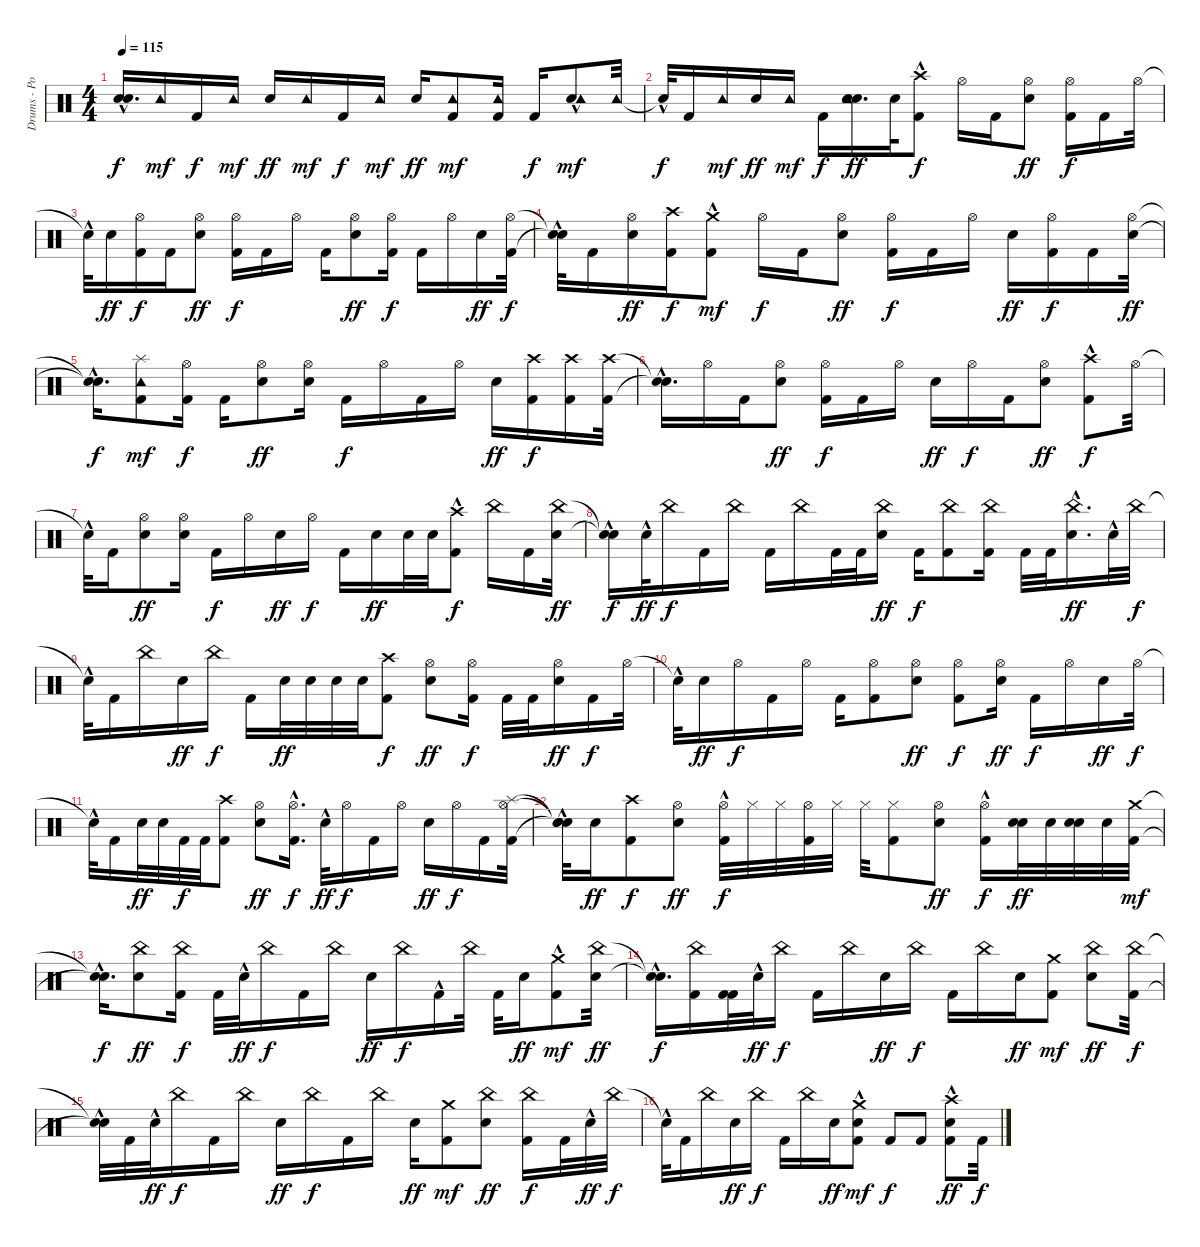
\track ("Drums - Portnoy" "Drums - Po") {instrument percussion}
\staff {score}
\articulation defaults
\ts (4 4)
\tempo 115
\clef neutral
\ks c
("Snare (hit)"{t} "Snare (hit)"{hac t}).16{d dy f} "Tambourine (hit)".16{dy mf} "Kick (hit) 2".16{dy f} "Tambourine (hit)".16{dy mf} "Electric Snare (hit)".16{dy ff} "Tambourine (hit)".16{dy mf} "Kick (hit) 2".16{dy f} "Tambourine (hit)".16{dy mf} "Electric Snare (hit)".16{dy ff} ("Kick (hit) 2" "Tambourine (hit)").8{dy mf} ("Kick (hit) 2" "Tambourine (hit)").16 "Kick (hit) 2".16{dy f} ("Electric Snare (hit)"{hac} "Tambourine (hit)").8{dy mf} "Tambourine (hit)".32 |
"Snare (hit)"{hac t}.32{dy f} "Kick (hit) 2".16 "Tambourine (hit)".16{dy mf} "Electric Snare (hit)".16{dy ff} "Tambourine (hit)".16{dy mf} "Kick (hit) 2".16{dy f} ("Electric Snare (hit)" "Tambourine (hit)" "Electric Snare (hit)").16{d dy ff} "Electric Snare (hit)".32 ("Crash high (hit)" "Kick (hit) 2"{hac}).8{dy f} "Hi-Hat (open)".16 "Kick (hit) 2".16 ("Hi-Hat (open)" "Electric Snare (hit)").8{dy ff} ("Kick (hit) 2" "Hi-Hat (open)").16{dy f} "Kick (hit) 2".16 "Hi-Hat (open)".32 |
"Snare (hit)"{hac t}.32 "Electric Snare (hit)".16{dy ff} ("Kick (hit) 2" "Hi-Hat (open)").16{dy f} "Kick (hit) 2".16 ("Hi-Hat (open)" "Electric Snare (hit)").8{dy ff} ("Kick (hit) 2" "Hi-Hat (open)").16{dy f} "Kick (hit) 2".16 "Hi-Hat (open)".16 "Kick (hit) 2".16 ("Hi-Hat (open)" "Electric Snare (hit)").8{dy ff} ("Kick (hit) 2" "Hi-Hat (open)").16{dy f} "Kick (hit) 2".16 "Hi-Hat (open)".16 "Electric Snare (hit)".16{dy ff} ("Kick (hit) 2" "Hi-Hat (open)").32{dy f} |
("Snare (hit)"{t} "Snare (hit)"{hac t}).32 "Kick (hit) 2".16 ("Hi-Hat (open)" "Electric Snare (hit)").16{dy ff} ("Kick (hit) 2" "Crash high (hit)").16{dy f} ("Kick (hit) 2"{hac} "Crash medium (hit)").8{dy mf} "Hi-Hat (open)".16{dy f} "Kick (hit) 2".16 ("Hi-Hat (open)" "Electric Snare (hit)").8{dy ff} ("Kick (hit) 2" "Hi-Hat (open)").16{dy f} "Kick (hit) 2".16 "Hi-Hat (open)".16 "Electric Snare (hit)".16{dy ff} ("Kick (hit) 2" "Hi-Hat (open)").16{dy f} "Kick (hit) 2".16 ("Hi-Hat (open)" "Electric Snare (hit)").32{dy ff} |
("Snare (hit)"{hac t} "Snare (hit)"{hac t}).16{d dy f} ("Kick (hit) 2" "Splash (hit)" "Tambourine (hit)").8{dy mf} ("Kick (hit) 2" "Hi-Hat (open)").16{dy f} "Kick (hit) 2".16 ("Hi-Hat (open)" "Electric Snare (hit)").8{dy ff} ("Hi-Hat (open)" "Electric Snare (hit)").16 "Kick (hit) 2".16{dy f} "Hi-Hat (open)".16 "Kick (hit) 2".16 "Hi-Hat (open)".16 "Electric Snare (hit)".16{dy ff} ("Crash high (hit)" "Kick (hit) 2").16{dy f} ("Crash high (hit)" "Kick (hit) 2").16 ("Kick (hit) 2" "Crash high (hit)").32 |
("Snare (hit)"{t} "Snare (hit)"{hac t}).16{d} "Hi-Hat (open)".16 "Kick (hit) 2".16 ("Hi-Hat (open)" "Electric Snare (hit)").8{dy ff} ("Kick (hit) 2" "Hi-Hat (open)").16{dy f} "Kick (hit) 2".16 "Hi-Hat (open)".16 "Electric Snare (hit)".16{dy ff} "Hi-Hat (open)".16{dy f} "Kick (hit) 2".16 ("Hi-Hat (open)" "Electric Snare (hit)").8{dy ff} ("Crash high (hit)" "Kick (hit) 2"{hac}).8{dy f} "Hi-Hat (open)".32 |
"Snare (hit)"{hac t}.32 "Kick (hit) 2".16 ("Hi-Hat (open)" "Electric Snare (hit)").8{dy ff} ("Hi-Hat (open)" "Electric Snare (hit)").16 "Kick (hit) 2".16{dy f} "Hi-Hat (open)".16 "Electric Snare (hit)".16{dy ff} "Hi-Hat (open)".16{dy f} "Kick (hit) 2".16 "Electric Snare (hit)".16{dy ff} "Electric Snare (hit)".32 "Electric Snare (hit)".32 ("Crash high (hit)" "Kick (hit) 2"{hac}).8{dy f} "China (hit)".16 "Kick (hit) 2".16 ("Electric Snare (hit)" "China (hit)").32{dy ff} |
("Snare (hit)"{t} "Snare (hit)"{hac t}).16{dy f} "Electric Snare (hit)"{hac}.32{dy ff} "China (hit)".16{dy f} "Kick (hit) 2".16 "China (hit)".16 "Kick (hit) 2".16 "China (hit)".16 "Kick (hit) 2".32 "Kick (hit) 2".32 ("Electric Snare (hit)" "China (hit)").16{dy ff} "Kick (hit) 2".16{dy f} ("Kick (hit) 2" "China (hit)").8 ("Kick (hit) 2" "China (hit)").16 "Kick (hit) 2".32 "Kick (hit) 2".32 ("Electric Snare (hit)"{hac} "China (hit)").16{d dy ff} "Electric Snare (hit)"{hac}.32 "China (hit)".32{dy f} |
"Snare (hit)"{hac t}.32 "Kick (hit) 2".16 "China (hit)".16 "Electric Snare (hit)".16{dy ff} "China (hit)".16{dy f} "Kick (hit) 2".16 "Electric Snare (hit)".32{dy ff} "Electric Snare (hit)".32 "Electric Snare (hit)".32 "Electric Snare (hit)".32 ("Crash high (hit)" "Kick (hit) 2").8{dy f} ("Hi-Hat (open)" "Electric Snare (hit)").8{dy ff} ("Kick (hit) 2" "Hi-Hat (open)").16{dy f} "Kick (hit) 2".32 "Kick (hit) 2".32 ("Hi-Hat (open)" "Electric Snare (hit)").16{dy ff} "Kick (hit) 2".16{dy f} "Hi-Hat (open)".32 |
"Snare (hit)"{hac t}.32 "Electric Snare (hit)".16{dy ff} "Hi-Hat (open)".16{dy f} "Kick (hit) 2".16 "Hi-Hat (open)".16 "Kick (hit) 2".16 ("Kick (hit) 2" "Hi-Hat (open)").8 ("Hi-Hat (open)" "Electric Snare (hit)").8{dy ff} ("Kick (hit) 2" "Hi-Hat (open)").8{dy f} ("Hi-Hat (open)" "Electric Snare (hit)").16{dy ff} "Kick (hit) 2".16{dy f} "Hi-Hat (open)".16 "Electric Snare (hit)".16{dy ff} "Hi-Hat (open)".32{dy f} |
"Snare (hit)"{hac t}.32 "Kick (hit) 2".16 "Electric Snare (hit)".32{dy ff} "Electric Snare (hit)".32 "Kick (hit) 2".32{dy f} "Kick (hit) 2".32 ("Crash high (hit)" "Kick (hit) 2").8 ("Hi-Hat (open)" "Electric Snare (hit)").8{dy ff} ("Hi-Hat (open)" "Kick (hit) 2"{hac}).16{d dy f} "Electric Snare (hit)"{hac}.32{dy ff} "Hi-Hat (open)".16{dy f} "Kick (hit) 2".16 "Hi-Hat (open)".16 "Electric Snare (hit)".16{dy ff} "Hi-Hat (open)".16{dy f} "Kick (hit) 2".16 ("Hi-Hat (open)" "Splash (hit)" "Kick (hit) 2").32 |
("Snare (hit)"{hac t} "Snare (hit)"{hac t} "Snare (hit)"{t}).32 "Electric Snare (hit)".16{dy ff} ("Crash high (hit)" "Kick (hit) 2").8{dy f} ("Hi-Hat (open)" "Electric Snare (hit)").8{dy ff} ("Kick (hit) 2"{hac} "Hi-Hat (open)").32{dy f} "Hi-Hat (closed)".32 "Hi-Hat (closed)".32 ("Kick (hit) 2" "Hi-Hat (open)").32 "Hi-Hat (closed)".32 "Hi-Hat (closed)".32 ("Kick (hit) 2" "Hi-Hat (closed)").8 ("Hi-Hat (open)" "Electric Snare (hit)").8{dy ff} ("Kick (hit) 2" "Hi-Hat (open)"{hac}).16{dy f} ("Electric Snare (hit)" "Electric Snare (hit)").32{dy ff} "Electric Snare (hit)".32 ("Electric Snare (hit)" "Electric Snare (hit)").32 "Electric Snare (hit)".32 ("Kick (hit) 2" "Crash medium (hit)").32{dy mf} |
("Snare (hit)"{hac t} "Snare (hit)"{hac t}).16{d dy f} ("Electric Snare (hit)" "China (hit)").8{dy ff} ("Kick (hit) 2" "China (hit)").16{dy f} "Kick (hit) 2".32 "Electric Snare (hit)"{hac}.32{dy ff} "China (hit)".16{dy f} "Kick (hit) 2".16 "China (hit)".16 "Electric Snare (hit)".16{dy ff} "China (hit)".16{dy f} "Kick (hit) 2"{hac}.16 "China (hit)".32 "Kick (hit) 2".32 "Electric Snare (hit)".16{dy ff} ("Kick (hit) 2"{hac} "Crash medium (hit)").8{dy mf} ("China (hit)" "Electric Snare (hit)").32{dy ff} |
("Snare (hit)"{hac t} "Snare (hit)"{hac t}).16{d dy f} ("China (hit)" "Kick (hit) 2").16 ("Kick (hit) 2" "Kick (hit) 2").32 "Electric Snare (hit)"{hac}.32{dy ff} "China (hit)".16{dy f} "Kick (hit) 2".16 "China (hit)".16 "Electric Snare (hit)".16{dy ff} "China (hit)".16{dy f} "Kick (hit) 2".16 "China (hit)".16 "Electric Snare (hit)".16{dy ff} ("Kick (hit) 2" "Crash medium (hit)").8{dy mf} ("Electric Snare (hit)" "China (hit)").8{dy ff} ("Kick (hit) 2" "China (hit)").32{dy f} |
("Snare (hit)"{t} "Snare (hit)"{hac t}).32 "Kick (hit) 2".32 "Electric Snare (hit)"{hac}.32{dy ff} "China (hit)".16{dy f} "Kick (hit) 2".16 "China (hit)".16 "Electric Snare (hit)".16{dy ff} "China (hit)".16{dy f} "Kick (hit) 2".16 "China (hit)".16 "Electric Snare (hit)".16{dy ff} ("Kick (hit) 2" "Crash medium (hit)").8{dy mf} ("Electric Snare (hit)" "China (hit)").8{dy ff} ("Kick (hit) 2" "China (hit)").16{dy f} "Kick (hit) 2".32 "Electric Snare (hit)"{hac}.32{dy ff} "China (hit)".32{dy f} |
"Snare (hit)"{hac t}.32 "Kick (hit) 2".16 "China (hit)".16 "Electric Snare (hit)".16{dy ff} "China (hit)".16{dy f} "Kick (hit) 2".16 "China (hit)".16 "Electric Snare (hit)".16{dy ff} ("Kick (hit) 2" "Electric Snare (hit)"{hac} "Crash medium (hit)"{hac}).8{dy mf} "Kick (hit) 2".8{dy f} "Kick (hit) 2".8 ("Kick (hit) 2" "Crash high (hit)"{hac} "Electric Snare (hit)"{hac}).8{dy ff} "Kick (hit) 2".32{dy f}
